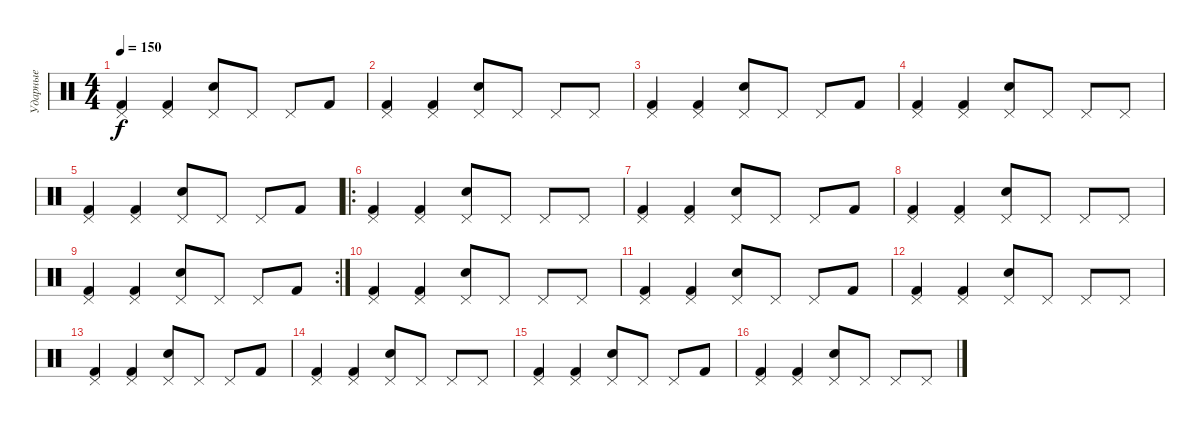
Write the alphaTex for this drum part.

\track ("Ударные" "Ударные") {instrument percussion}
\staff {score}
\articulation defaults
\ts (4 4)
\tempo 150
\clef neutral
\ks c
("Pedal Hi-Hat (hit)" "Kick (hit) 2").4{dy f} ("Pedal Hi-Hat (hit)" "Kick (hit) 2").4 ("Pedal Hi-Hat (hit)" "Snare (hit) 2").8 "Pedal Hi-Hat (hit)".8 "Pedal Hi-Hat (hit)".8 "Kick (hit) 2".8 |
("Pedal Hi-Hat (hit)" "Kick (hit) 2").4 ("Pedal Hi-Hat (hit)" "Kick (hit) 2").4 ("Pedal Hi-Hat (hit)" "Snare (hit) 2").8 "Pedal Hi-Hat (hit)".8 "Pedal Hi-Hat (hit)".8 "Pedal Hi-Hat (hit)".8 |
("Pedal Hi-Hat (hit)" "Kick (hit) 2").4 ("Pedal Hi-Hat (hit)" "Kick (hit) 2").4 ("Pedal Hi-Hat (hit)" "Snare (hit) 2").8 "Pedal Hi-Hat (hit)".8 "Pedal Hi-Hat (hit)".8 "Kick (hit) 2".8 |
("Pedal Hi-Hat (hit)" "Kick (hit) 2").4 ("Pedal Hi-Hat (hit)" "Kick (hit) 2").4 ("Pedal Hi-Hat (hit)" "Snare (hit) 2").8 "Pedal Hi-Hat (hit)".8 "Pedal Hi-Hat (hit)".8 "Pedal Hi-Hat (hit)".8 |
("Pedal Hi-Hat (hit)" "Kick (hit) 2").4 ("Pedal Hi-Hat (hit)" "Kick (hit) 2").4 ("Pedal Hi-Hat (hit)" "Snare (hit) 2").8 "Pedal Hi-Hat (hit)".8 "Pedal Hi-Hat (hit)".8 "Kick (hit) 2".8 |
\ro
("Pedal Hi-Hat (hit)" "Kick (hit) 2").4 ("Pedal Hi-Hat (hit)" "Kick (hit) 2").4 ("Pedal Hi-Hat (hit)" "Snare (hit) 2").8 "Pedal Hi-Hat (hit)".8 "Pedal Hi-Hat (hit)".8 "Pedal Hi-Hat (hit)".8 |
("Pedal Hi-Hat (hit)" "Kick (hit) 2").4 ("Pedal Hi-Hat (hit)" "Kick (hit) 2").4 ("Pedal Hi-Hat (hit)" "Snare (hit) 2").8 "Pedal Hi-Hat (hit)".8 "Pedal Hi-Hat (hit)".8 "Kick (hit) 2".8 |
("Pedal Hi-Hat (hit)" "Kick (hit) 2").4 ("Pedal Hi-Hat (hit)" "Kick (hit) 2").4 ("Pedal Hi-Hat (hit)" "Snare (hit) 2").8 "Pedal Hi-Hat (hit)".8 "Pedal Hi-Hat (hit)".8 "Pedal Hi-Hat (hit)".8 |
\rc 2
("Pedal Hi-Hat (hit)" "Kick (hit) 2").4 ("Pedal Hi-Hat (hit)" "Kick (hit) 2").4 ("Pedal Hi-Hat (hit)" "Snare (hit) 2").8 "Pedal Hi-Hat (hit)".8 "Pedal Hi-Hat (hit)".8 "Kick (hit) 2".8 |
("Pedal Hi-Hat (hit)" "Kick (hit) 2").4 ("Pedal Hi-Hat (hit)" "Kick (hit) 2").4 ("Pedal Hi-Hat (hit)" "Snare (hit) 2").8 "Pedal Hi-Hat (hit)".8 "Pedal Hi-Hat (hit)".8 "Pedal Hi-Hat (hit)".8 |
("Pedal Hi-Hat (hit)" "Kick (hit) 2").4 ("Pedal Hi-Hat (hit)" "Kick (hit) 2").4 ("Pedal Hi-Hat (hit)" "Snare (hit) 2").8 "Pedal Hi-Hat (hit)".8 "Pedal Hi-Hat (hit)".8 "Kick (hit) 2".8 |
("Pedal Hi-Hat (hit)" "Kick (hit) 2").4 ("Pedal Hi-Hat (hit)" "Kick (hit) 2").4 ("Pedal Hi-Hat (hit)" "Snare (hit) 2").8 "Pedal Hi-Hat (hit)".8 "Pedal Hi-Hat (hit)".8 "Pedal Hi-Hat (hit)".8 |
("Pedal Hi-Hat (hit)" "Kick (hit) 2").4 ("Pedal Hi-Hat (hit)" "Kick (hit) 2").4 ("Pedal Hi-Hat (hit)" "Snare (hit) 2").8 "Pedal Hi-Hat (hit)".8 "Pedal Hi-Hat (hit)".8 "Kick (hit) 2".8 |
("Pedal Hi-Hat (hit)" "Kick (hit) 2").4 ("Pedal Hi-Hat (hit)" "Kick (hit) 2").4 ("Pedal Hi-Hat (hit)" "Snare (hit) 2").8 "Pedal Hi-Hat (hit)".8 "Pedal Hi-Hat (hit)".8 "Pedal Hi-Hat (hit)".8 |
("Pedal Hi-Hat (hit)" "Kick (hit) 2").4 ("Pedal Hi-Hat (hit)" "Kick (hit) 2").4 ("Pedal Hi-Hat (hit)" "Snare (hit) 2").8 "Pedal Hi-Hat (hit)".8 "Pedal Hi-Hat (hit)".8 "Kick (hit) 2".8 |
("Pedal Hi-Hat (hit)" "Kick (hit) 2").4 ("Pedal Hi-Hat (hit)" "Kick (hit) 2").4 ("Pedal Hi-Hat (hit)" "Snare (hit) 2").8 "Pedal Hi-Hat (hit)".8 "Pedal Hi-Hat (hit)".8 "Pedal Hi-Hat (hit)".8
